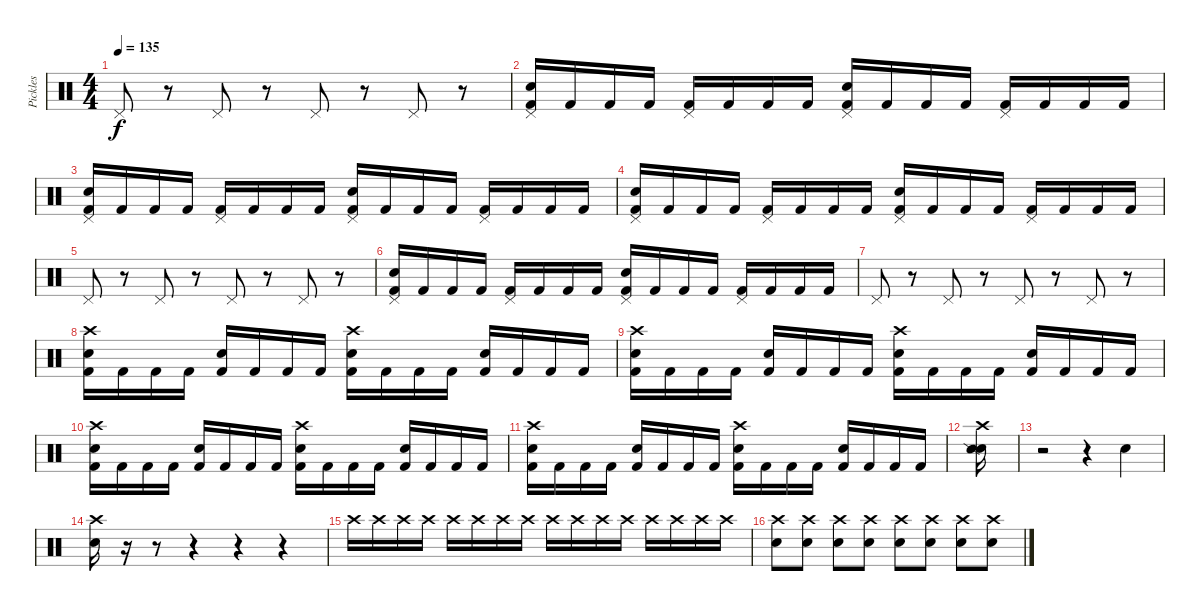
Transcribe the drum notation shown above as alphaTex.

\track ("Pickles" "Pickles") {instrument percussion}
\staff {score}
\articulation defaults
\ts (4 4)
\tempo 135
\clef neutral
\ks c "Pedal Hi-Hat (hit)".8{dy f}
r.8 "Pedal Hi-Hat (hit)".8 r.8 "Pedal Hi-Hat (hit)".8 r.8 "Pedal Hi-Hat (hit)".8 r.8 |
("Pedal Hi-Hat (hit)" "Electric Snare (hit)" "Kick (hit) 2").16 "Kick (hit) 2".16 "Kick (hit) 2".16 "Kick (hit) 2".16 ("Pedal Hi-Hat (hit)" "Kick (hit) 2").16 "Kick (hit) 2".16 "Kick (hit) 2".16 "Kick (hit) 2".16 ("Pedal Hi-Hat (hit)" "Electric Snare (hit)" "Kick (hit) 2").16 "Kick (hit) 2".16 "Kick (hit) 2".16 "Kick (hit) 2".16 ("Pedal Hi-Hat (hit)" "Kick (hit) 2").16 "Kick (hit) 2".16 "Kick (hit) 2".16 "Kick (hit) 2".16 |
("Pedal Hi-Hat (hit)" "Electric Snare (hit)" "Kick (hit) 2").16 "Kick (hit) 2".16 "Kick (hit) 2".16 "Kick (hit) 2".16 ("Pedal Hi-Hat (hit)" "Kick (hit) 2").16 "Kick (hit) 2".16 "Kick (hit) 2".16 "Kick (hit) 2".16 ("Pedal Hi-Hat (hit)" "Electric Snare (hit)" "Kick (hit) 2").16 "Kick (hit) 2".16 "Kick (hit) 2".16 "Kick (hit) 2".16 ("Pedal Hi-Hat (hit)" "Kick (hit) 2").16 "Kick (hit) 2".16 "Kick (hit) 2".16 "Kick (hit) 2".16 |
("Pedal Hi-Hat (hit)" "Electric Snare (hit)" "Kick (hit) 2").16 "Kick (hit) 2".16 "Kick (hit) 2".16 "Kick (hit) 2".16 ("Pedal Hi-Hat (hit)" "Kick (hit) 2").16 "Kick (hit) 2".16 "Kick (hit) 2".16 "Kick (hit) 2".16 ("Pedal Hi-Hat (hit)" "Electric Snare (hit)" "Kick (hit) 2").16 "Kick (hit) 2".16 "Kick (hit) 2".16 "Kick (hit) 2".16 ("Pedal Hi-Hat (hit)" "Kick (hit) 2").16 "Kick (hit) 2".16 "Kick (hit) 2".16 "Kick (hit) 2".16 |
"Pedal Hi-Hat (hit)".8 r.8 "Pedal Hi-Hat (hit)".8 r.8 "Pedal Hi-Hat (hit)".8 r.8 "Pedal Hi-Hat (hit)".8 r.8 |
("Pedal Hi-Hat (hit)" "Electric Snare (hit)" "Kick (hit) 2").16 "Kick (hit) 2".16 "Kick (hit) 2".16 "Kick (hit) 2".16 ("Pedal Hi-Hat (hit)" "Kick (hit) 2").16 "Kick (hit) 2".16 "Kick (hit) 2".16 "Kick (hit) 2".16 ("Pedal Hi-Hat (hit)" "Electric Snare (hit)" "Kick (hit) 2").16 "Kick (hit) 2".16 "Kick (hit) 2".16 "Kick (hit) 2".16 ("Pedal Hi-Hat (hit)" "Kick (hit) 2").16 "Kick (hit) 2".16 "Kick (hit) 2".16 "Kick (hit) 2".16 |
"Pedal Hi-Hat (hit)".8 r.8 "Pedal Hi-Hat (hit)".8 r.8 "Pedal Hi-Hat (hit)".8 r.8 "Pedal Hi-Hat (hit)".8 r.8 |
("Crash high (hit)" "Electric Snare (hit)" "Kick (hit) 2").16 "Kick (hit) 2".16 "Kick (hit) 2".16 "Kick (hit) 2".16 ("Electric Snare (hit)" "Kick (hit) 2").16 "Kick (hit) 2".16 "Kick (hit) 2".16 "Kick (hit) 2".16 ("Crash high (hit)" "Electric Snare (hit)" "Kick (hit) 2").16 "Kick (hit) 2".16 "Kick (hit) 2".16 "Kick (hit) 2".16 ("Electric Snare (hit)" "Kick (hit) 2").16 "Kick (hit) 2".16 "Kick (hit) 2".16 "Kick (hit) 2".16 |
("Crash high (hit)" "Electric Snare (hit)" "Kick (hit) 2").16 "Kick (hit) 2".16 "Kick (hit) 2".16 "Kick (hit) 2".16 ("Electric Snare (hit)" "Kick (hit) 2").16 "Kick (hit) 2".16 "Kick (hit) 2".16 "Kick (hit) 2".16 ("Crash high (hit)" "Electric Snare (hit)" "Kick (hit) 2").16 "Kick (hit) 2".16 "Kick (hit) 2".16 "Kick (hit) 2".16 ("Electric Snare (hit)" "Kick (hit) 2").16 "Kick (hit) 2".16 "Kick (hit) 2".16 "Kick (hit) 2".16 |
("Crash high (hit)" "Electric Snare (hit)" "Kick (hit) 2").16 "Kick (hit) 2".16 "Kick (hit) 2".16 "Kick (hit) 2".16 ("Electric Snare (hit)" "Kick (hit) 2").16 "Kick (hit) 2".16 "Kick (hit) 2".16 "Kick (hit) 2".16 ("Crash high (hit)" "Electric Snare (hit)" "Kick (hit) 2").16 "Kick (hit) 2".16 "Kick (hit) 2".16 "Kick (hit) 2".16 ("Electric Snare (hit)" "Kick (hit) 2").16 "Kick (hit) 2".16 "Kick (hit) 2".16 "Kick (hit) 2".16 |
("Crash high (hit)" "Electric Snare (hit)" "Kick (hit) 2").16 "Kick (hit) 2".16 "Kick (hit) 2".16 "Kick (hit) 2".16 ("Electric Snare (hit)" "Kick (hit) 2").16 "Kick (hit) 2".16 "Kick (hit) 2".16 "Kick (hit) 2".16 ("Crash high (hit)" "Electric Snare (hit)" "Kick (hit) 2").16 "Kick (hit) 2".16 "Kick (hit) 2".16 "Kick (hit) 2".16 ("Electric Snare (hit)" "Kick (hit) 2").16 "Kick (hit) 2".16 "Kick (hit) 2".16 "Kick (hit) 2".16 |
("Crash high (hit)" "Electric Snare (hit)" "Snare (side stick) 2").16 |
r.2 r.4 "Electric Snare (hit)".4 |
("Crash high (hit)" "Electric Snare (hit)").16 r.16 r.8 r.4{volume 4} r.4 r.4 |
"Crash high (hit)".16{volume 13} "Crash high (hit)".16 "Crash high (hit)".16 "Crash high (hit)".16 "Crash high (hit)".16 "Crash high (hit)".16 "Crash high (hit)".16 "Crash high (hit)".16 "Crash high (hit)".16 "Crash high (hit)".16 "Crash high (hit)".16 "Crash high (hit)".16 "Crash high (hit)".16 "Crash high (hit)".16 "Crash high (hit)".16 "Crash high (hit)".16 |
("Crash high (hit)" "Electric Snare (hit)").8 ("Crash high (hit)" "Electric Snare (hit)").8 ("Crash high (hit)" "Electric Snare (hit)").8 ("Crash high (hit)" "Electric Snare (hit)").8 ("Crash high (hit)" "Electric Snare (hit)").8 ("Crash high (hit)" "Electric Snare (hit)").8 ("Crash high (hit)" "Electric Snare (hit)").8 ("Crash high (hit)" "Electric Snare (hit)").8
